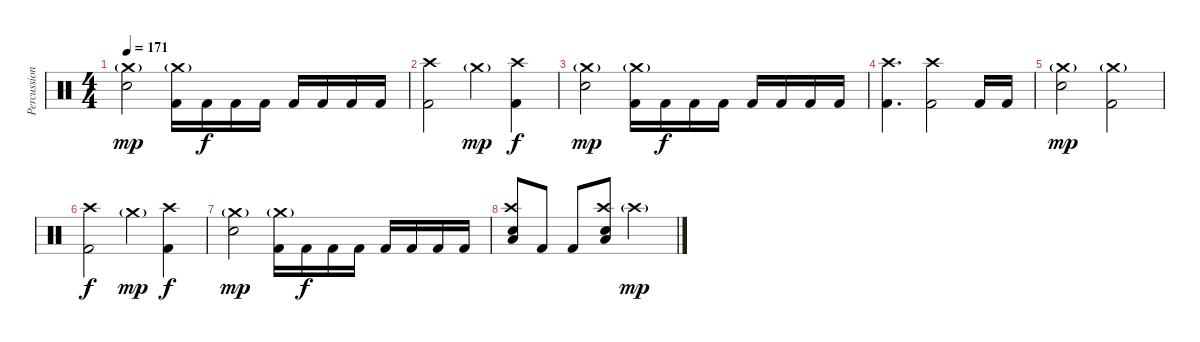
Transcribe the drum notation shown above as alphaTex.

\track ("Percussion" "Percussion") {instrument percussion}
\staff {score}
\articulation defaults
\ts (4 4)
\tempo 171
\clef neutral
\ks c
("Crash medium (hit)"{g} "Electric Snare (hit)").2{dy mp} ("Crash medium (hit)"{g} "Kick (hit) 2").16 "Kick (hit) 2".16{dy f} "Kick (hit) 2".16 "Kick (hit) 2".16 "Kick (hit) 2".16 "Kick (hit) 2".16 "Kick (hit) 2".16 "Kick (hit) 2".16 |
("Crash high (hit)" "Kick (hit) 2").2 "Crash medium (hit)"{g}.4{dy mp} ("Crash high (hit)" "Kick (hit) 2").4{dy f} |
("Crash medium (hit)"{g} "Electric Snare (hit)").2{dy mp} ("Crash medium (hit)"{g} "Kick (hit) 2").16 "Kick (hit) 2".16{dy f} "Kick (hit) 2".16 "Kick (hit) 2".16 "Kick (hit) 2".16 "Kick (hit) 2".16 "Kick (hit) 2".16 "Kick (hit) 2".16 |
("Crash high (hit)" "Kick (hit) 2").4{d} ("Crash high (hit)" "Kick (hit) 2").2 "Kick (hit) 2".16 "Kick (hit) 2".16 |
("Crash medium (hit)"{g} "Electric Snare (hit)").2{dy mp} ("Crash medium (hit)"{g} "Kick (hit) 2").2 |
("Crash high (hit)" "Kick (hit) 2").2{dy f} "Crash medium (hit)"{g}.4{dy mp} ("Crash high (hit)" "Kick (hit) 2").4{dy f} |
("Crash medium (hit)"{g} "Electric Snare (hit)").2{dy mp} ("Crash medium (hit)"{g} "Kick (hit) 2").16 "Kick (hit) 2".16{dy f} "Kick (hit) 2".16 "Kick (hit) 2".16 "Kick (hit) 2".16 "Kick (hit) 2".16 "Kick (hit) 2".16 "Kick (hit) 2".16 |
("Crash high (hit)" "Electric Snare (hit)" "Low Tom (hit)").8 "Kick (hit) 2".8 "Kick (hit) 2".8 ("Crash high (hit)" "Electric Snare (hit)" "Low Tom (hit)").8 "Crash high (hit)"{g}.2{dy mp volume 0}
